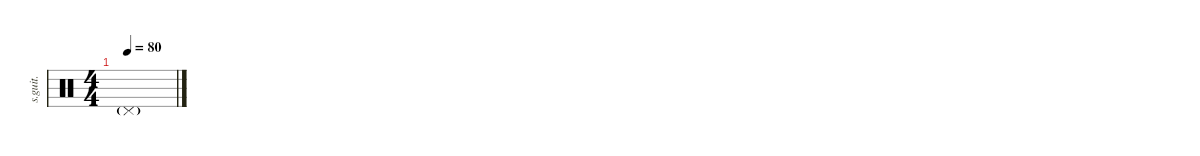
\defaultSystemsLayout 4
\hideDynamics
\bracketExtendMode nobrackets
\track ("" "s.guit.") {instrument percussion}
\staff {score}
\articulation defaults
\ts (4 4)
\tempo 80
\clef neutral
\ks c "Pedal Hi-Hat (hit)"{g}.1{dy ff}
